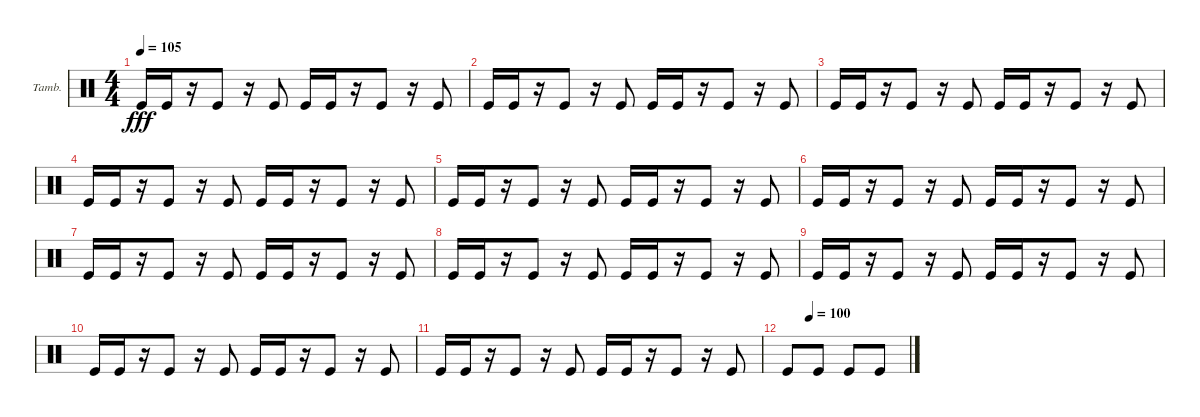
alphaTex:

\bracketExtendMode groupsimilarinstruments
\firstSystemTrackNameOrientation horizontal
\otherSystemsTrackNameOrientation horizontal
\track ("Tambourine" "Tamb.") {instrument percussion}
\staff {score}
\articulation defaults
\ts (4 4)
\tempo 105
\clef neutral
\scale
0.333333
\ks c "Kick (hit)".16{dy fff} "Kick (hit)".16
r.16 "Kick (hit)".8 r.16 "Kick (hit)".8 "Kick (hit)".16 "Kick (hit)".16 r.16 "Kick (hit)".8 r.16 "Kick (hit)".8 |
\scale
0.333333 "Kick (hit)".16 "Kick (hit)".16 r.16 "Kick (hit)".8 r.16 "Kick (hit)".8 "Kick (hit)".16 "Kick (hit)".16 r.16 "Kick (hit)".8 r.16 "Kick (hit)".8 |
\scale
0.333333 "Kick (hit)".16 "Kick (hit)".16 r.16 "Kick (hit)".8 r.16 "Kick (hit)".8 "Kick (hit)".16 "Kick (hit)".16 r.16 "Kick (hit)".8 r.16 "Kick (hit)".8 |
\scale
0.333333 "Kick (hit)".16 "Kick (hit)".16 r.16 "Kick (hit)".8 r.16 "Kick (hit)".8 "Kick (hit)".16 "Kick (hit)".16 r.16 "Kick (hit)".8 r.16 "Kick (hit)".8 |
\scale
0.333333 "Kick (hit)".16 "Kick (hit)".16 r.16 "Kick (hit)".8 r.16 "Kick (hit)".8 "Kick (hit)".16 "Kick (hit)".16 r.16 "Kick (hit)".8 r.16 "Kick (hit)".8 |
\scale
0.333333 "Kick (hit)".16 "Kick (hit)".16 r.16 "Kick (hit)".8 r.16 "Kick (hit)".8 "Kick (hit)".16 "Kick (hit)".16 r.16 "Kick (hit)".8 r.16 "Kick (hit)".8 |
\scale
0.333333 "Kick (hit)".16 "Kick (hit)".16 r.16 "Kick (hit)".8 r.16 "Kick (hit)".8 "Kick (hit)".16 "Kick (hit)".16 r.16 "Kick (hit)".8 r.16 "Kick (hit)".8 |
\scale
0.333333 "Kick (hit)".16 "Kick (hit)".16 r.16 "Kick (hit)".8 r.16 "Kick (hit)".8 "Kick (hit)".16 "Kick (hit)".16 r.16 "Kick (hit)".8 r.16 "Kick (hit)".8 |
\scale
0.333333 "Kick (hit)".16 "Kick (hit)".16 r.16 "Kick (hit)".8 r.16 "Kick (hit)".8 "Kick (hit)".16 "Kick (hit)".16 r.16 "Kick (hit)".8 r.16 "Kick (hit)".8 |
\scale
0.333333 "Kick (hit)".16 "Kick (hit)".16 r.16 "Kick (hit)".8 r.16 "Kick (hit)".8 "Kick (hit)".16 "Kick (hit)".16 r.16 "Kick (hit)".8 r.16 "Kick (hit)".8 |
\scale
0.333333 "Kick (hit)".16 "Kick (hit)".16 r.16 "Kick (hit)".8 r.16 "Kick (hit)".8 "Kick (hit)".16 "Kick (hit)".16 r.16 "Kick (hit)".8 r.16 "Kick (hit)".8 |
\tempo (100 0.1875)
\scale
0.333333 "Kick (hit)".8 "Kick (hit)".8 "Kick (hit)".8 "Kick (hit)".8 |
\scale
0.333333 |
\scale
0.333333 |
\scale
0.333333 |
\scale
0.333333
